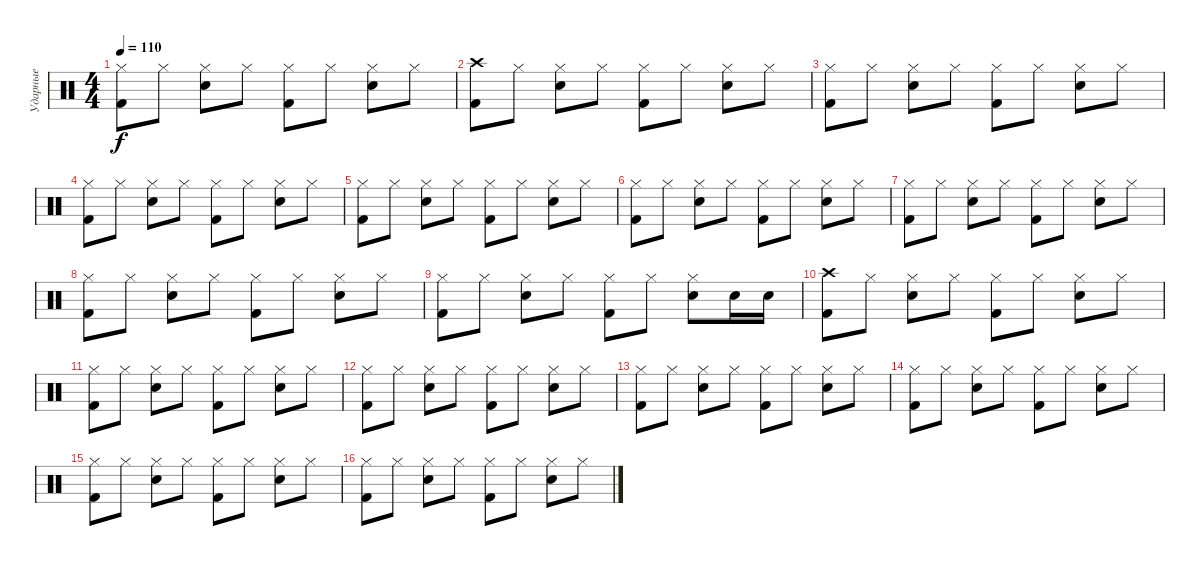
\track ("Ударные" "Ударные") {instrument percussion}
\staff {score}
\articulation defaults
\ts (4 4)
\tempo 110
\clef neutral
\ks c
("Kick (hit) 2" "Hi-Hat (closed)").8{dy f} "Hi-Hat (closed)".8 ("Snare (hit) 2" "Hi-Hat (closed)").8 "Hi-Hat (closed)".8 ("Kick (hit) 2" "Hi-Hat (closed)").8 "Hi-Hat (closed)".8 ("Snare (hit) 2" "Hi-Hat (closed)").8 "Hi-Hat (closed)".8 |
("Kick (hit) 2" "Crash high (hit)").8 "Hi-Hat (closed)".8 ("Snare (hit) 2" "Hi-Hat (closed)").8 "Hi-Hat (closed)".8 ("Kick (hit) 2" "Hi-Hat (closed)").8 "Hi-Hat (closed)".8 ("Snare (hit) 2" "Hi-Hat (closed)").8 "Hi-Hat (closed)".8 |
("Kick (hit) 2" "Hi-Hat (closed)").8 "Hi-Hat (closed)".8 ("Snare (hit) 2" "Hi-Hat (closed)").8 "Hi-Hat (closed)".8 ("Kick (hit) 2" "Hi-Hat (closed)").8 "Hi-Hat (closed)".8 ("Snare (hit) 2" "Hi-Hat (closed)").8 "Hi-Hat (closed)".8 |
("Kick (hit) 2" "Hi-Hat (closed)").8 "Hi-Hat (closed)".8 ("Snare (hit) 2" "Hi-Hat (closed)").8 "Hi-Hat (closed)".8 ("Kick (hit) 2" "Hi-Hat (closed)").8 "Hi-Hat (closed)".8 ("Snare (hit) 2" "Hi-Hat (closed)").8 "Hi-Hat (closed)".8 |
("Kick (hit) 2" "Hi-Hat (closed)").8 "Hi-Hat (closed)".8 ("Snare (hit) 2" "Hi-Hat (closed)").8 "Hi-Hat (closed)".8 ("Kick (hit) 2" "Hi-Hat (closed)").8 "Hi-Hat (closed)".8 ("Snare (hit) 2" "Hi-Hat (closed)").8 "Hi-Hat (closed)".8 |
("Kick (hit) 2" "Hi-Hat (closed)").8 "Hi-Hat (closed)".8 ("Snare (hit) 2" "Hi-Hat (closed)").8 "Hi-Hat (closed)".8 ("Kick (hit) 2" "Hi-Hat (closed)").8 "Hi-Hat (closed)".8 ("Snare (hit) 2" "Hi-Hat (closed)").8 "Hi-Hat (closed)".8 |
("Kick (hit) 2" "Hi-Hat (closed)").8 "Hi-Hat (closed)".8 ("Snare (hit) 2" "Hi-Hat (closed)").8 "Hi-Hat (closed)".8 ("Kick (hit) 2" "Hi-Hat (closed)").8 "Hi-Hat (closed)".8 ("Snare (hit) 2" "Hi-Hat (closed)").8 "Hi-Hat (closed)".8 |
("Kick (hit) 2" "Hi-Hat (closed)").8 "Hi-Hat (closed)".8 ("Snare (hit) 2" "Hi-Hat (closed)").8 "Hi-Hat (closed)".8 ("Kick (hit) 2" "Hi-Hat (closed)").8 "Hi-Hat (closed)".8 ("Snare (hit) 2" "Hi-Hat (closed)").8 "Hi-Hat (closed)".8 |
("Kick (hit) 2" "Hi-Hat (closed)").8 "Hi-Hat (closed)".8 ("Snare (hit) 2" "Hi-Hat (closed)").8 "Hi-Hat (closed)".8 ("Kick (hit) 2" "Hi-Hat (closed)").8 "Hi-Hat (closed)".8 ("Snare (hit) 2" "Hi-Hat (closed)").8 "Snare (hit) 2".16 "Snare (hit) 2".16 |
("Kick (hit) 2" "Crash high (hit)").8 "Hi-Hat (closed)".8 ("Snare (hit) 2" "Hi-Hat (closed)").8 "Hi-Hat (closed)".8 ("Kick (hit) 2" "Hi-Hat (closed)").8 "Hi-Hat (closed)".8 ("Snare (hit) 2" "Hi-Hat (closed)").8 "Hi-Hat (closed)".8 |
("Kick (hit) 2" "Hi-Hat (closed)").8 "Hi-Hat (closed)".8 ("Snare (hit) 2" "Hi-Hat (closed)").8 "Hi-Hat (closed)".8 ("Kick (hit) 2" "Hi-Hat (closed)").8 "Hi-Hat (closed)".8 ("Snare (hit) 2" "Hi-Hat (closed)").8 "Hi-Hat (closed)".8 |
("Kick (hit) 2" "Hi-Hat (closed)").8 "Hi-Hat (closed)".8 ("Snare (hit) 2" "Hi-Hat (closed)").8 "Hi-Hat (closed)".8 ("Kick (hit) 2" "Hi-Hat (closed)").8 "Hi-Hat (closed)".8 ("Snare (hit) 2" "Hi-Hat (closed)").8 "Hi-Hat (closed)".8 |
("Kick (hit) 2" "Hi-Hat (closed)").8 "Hi-Hat (closed)".8 ("Snare (hit) 2" "Hi-Hat (closed)").8 "Hi-Hat (closed)".8 ("Kick (hit) 2" "Hi-Hat (closed)").8 "Hi-Hat (closed)".8 ("Snare (hit) 2" "Hi-Hat (closed)").8 "Hi-Hat (closed)".8 |
("Kick (hit) 2" "Hi-Hat (closed)").8 "Hi-Hat (closed)".8 ("Snare (hit) 2" "Hi-Hat (closed)").8 "Hi-Hat (closed)".8 ("Kick (hit) 2" "Hi-Hat (closed)").8 "Hi-Hat (closed)".8 ("Snare (hit) 2" "Hi-Hat (closed)").8 "Hi-Hat (closed)".8 |
("Kick (hit) 2" "Hi-Hat (closed)").8 "Hi-Hat (closed)".8 ("Snare (hit) 2" "Hi-Hat (closed)").8 "Hi-Hat (closed)".8 ("Kick (hit) 2" "Hi-Hat (closed)").8 "Hi-Hat (closed)".8 ("Snare (hit) 2" "Hi-Hat (closed)").8 "Hi-Hat (closed)".8 |
("Kick (hit) 2" "Hi-Hat (closed)").8 "Hi-Hat (closed)".8 ("Snare (hit) 2" "Hi-Hat (closed)").8 "Hi-Hat (closed)".8 ("Kick (hit) 2" "Hi-Hat (closed)").8 "Hi-Hat (closed)".8 ("Snare (hit) 2" "Hi-Hat (closed)").8 "Hi-Hat (closed)".8
